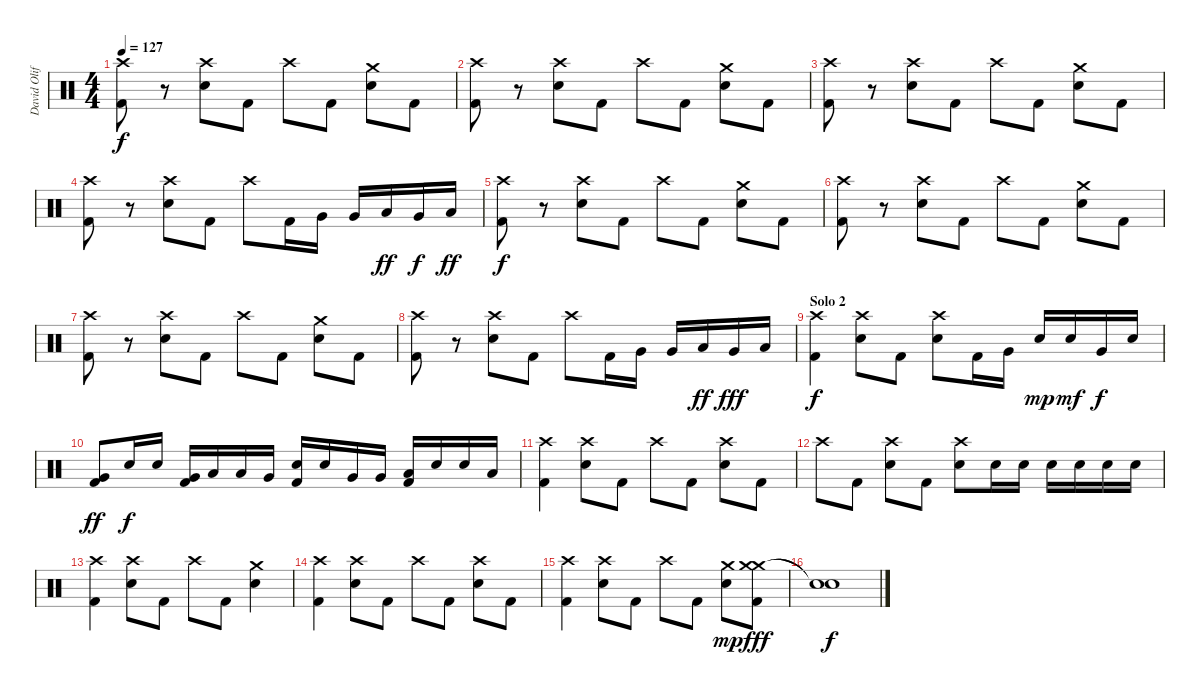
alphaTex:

\track ("David Oliffe" "David Olif") {instrument percussion}
\staff {score}
\articulation defaults
\ts (4 4)
\tempo 127
\clef neutral
\ks c
("Crash high (hit)" "Kick (hit) 2").8{dy f} r.8 ("Crash high (hit)" "Electric Snare (hit)").8 "Kick (hit) 2".8 "Crash high (hit)".8 "Kick (hit) 2".8 ("Crash medium (hit)" "Electric Snare (hit)").8 "Kick (hit) 2".8 |
("Crash high (hit)" "Kick (hit) 2").8 r.8 ("Crash high (hit)" "Electric Snare (hit)").8 "Kick (hit) 2".8 "Crash high (hit)".8 "Kick (hit) 2".8 ("Crash medium (hit)" "Electric Snare (hit)").8 "Kick (hit) 2".8 |
("Crash high (hit)" "Kick (hit) 2").8 r.8 ("Crash high (hit)" "Electric Snare (hit)").8 "Kick (hit) 2".8 "Crash high (hit)".8 "Kick (hit) 2".8 ("Crash medium (hit)" "Electric Snare (hit)").8 "Kick (hit) 2".8 |
("Crash high (hit)" "Kick (hit) 2").8 r.8 ("Crash high (hit)" "Electric Snare (hit)").8 "Kick (hit) 2".8 "Crash high (hit)".8 "Kick (hit) 2".16 "Very Low Tom (hit)".16 "Very Low Tom (hit)".16 "Low Tom (hit)".16{dy ff} "Very Low Tom (hit)".16{dy f} "Low Tom (hit)".16{dy ff} |
("Crash high (hit)" "Kick (hit) 2").8{dy f} r.8 ("Crash high (hit)" "Electric Snare (hit)").8 "Kick (hit) 2".8 "Crash high (hit)".8 "Kick (hit) 2".8 ("Crash medium (hit)" "Electric Snare (hit)").8 "Kick (hit) 2".8 |
("Crash high (hit)" "Kick (hit) 2").8 r.8 ("Crash high (hit)" "Electric Snare (hit)").8 "Kick (hit) 2".8 "Crash high (hit)".8 "Kick (hit) 2".8 ("Crash medium (hit)" "Electric Snare (hit)").8 "Kick (hit) 2".8 |
("Crash high (hit)" "Kick (hit) 2").8 r.8 ("Crash high (hit)" "Electric Snare (hit)").8 "Kick (hit) 2".8 "Crash high (hit)".8 "Kick (hit) 2".8 ("Crash medium (hit)" "Electric Snare (hit)").8 "Kick (hit) 2".8 |
("Crash high (hit)" "Kick (hit) 2").8 r.8 ("Crash high (hit)" "Electric Snare (hit)").8 "Kick (hit) 2".8 "Crash high (hit)".8 "Kick (hit) 2".16 "Very Low Tom (hit)".16 "Very Low Tom (hit)".16 "Low Tom (hit)".16{dy ff} "Very Low Tom (hit)".16{dy fff} "Low Tom (hit)".16 |
\section ("" "Solo 2")
("Crash high (hit)" "Kick (hit) 2").4{dy f} ("Crash high (hit)" "Electric Snare (hit)").8 "Kick (hit) 2".8 ("Crash high (hit)" "Electric Snare (hit)").8 "Kick (hit) 2".16 "Very Low Tom (hit)".16 "Electric Snare (hit)".16{dy mp} "Electric Snare (hit)".16{dy mf} "Very Low Tom (hit)".16{dy f} "Electric Snare (hit)".16 |
("Very Low Tom (hit)" "Kick (hit) 2").8{dy ff} "Electric Snare (hit)".16{dy f} "Electric Snare (hit)".16 ("Very Low Tom (hit)" "Kick (hit) 2").16 "Low Tom (hit)".16 "Low Tom (hit)".16 "Very Low Tom (hit)".16 ("Electric Snare (hit)" "Kick (hit) 2").16 "Electric Snare (hit)".16 "Very Low Tom (hit)".16 "Very Low Tom (hit)".16 ("Low Tom (hit)" "Kick (hit) 2").16 "Electric Snare (hit)".16 "Electric Snare (hit)".16 "Low Tom (hit)".16 |
("Crash high (hit)" "Kick (hit) 2").4 ("Crash high (hit)" "Electric Snare (hit)").8 "Kick (hit) 2".8 "Crash high (hit)".8 "Kick (hit) 2".8 ("Crash high (hit)" "Electric Snare (hit)").8 "Kick (hit) 2".8 |
"Crash high (hit)".8 "Kick (hit) 2".8 ("Crash high (hit)" "Electric Snare (hit)").8 "Kick (hit) 2".8 ("Crash high (hit)" "Electric Snare (hit)").8 "Electric Snare (hit)".16 "Electric Snare (hit)".16 "Electric Snare (hit)".16 "Electric Snare (hit)".16 "Electric Snare (hit)".16 "Electric Snare (hit)".16 |
("Crash high (hit)" "Kick (hit) 2").4 ("Crash high (hit)" "Electric Snare (hit)").8 "Kick (hit) 2".8 "Crash high (hit)".8 "Kick (hit) 2".8 ("Crash medium (hit)" "Electric Snare (hit)").4 |
("Crash high (hit)" "Kick (hit) 2").4 ("Crash high (hit)" "Electric Snare (hit)").8 "Kick (hit) 2".8 "Crash high (hit)".8 "Kick (hit) 2".8 ("Crash high (hit)" "Electric Snare (hit)").8 "Kick (hit) 2".8 |
("Crash high (hit)" "Kick (hit) 2").4 ("Crash high (hit)" "Electric Snare (hit)").8 "Kick (hit) 2".8 "Crash high (hit)".8 "Kick (hit) 2".8 ("Crash medium (hit)" "Electric Snare (hit)").8{dy mp} ("Crash medium (hit)" "Crash medium (hit)" "Kick (hit) 2").8{dy fff} |
("Snare (hit)"{t} "Snare (hit)"{t}).1{dy f}
